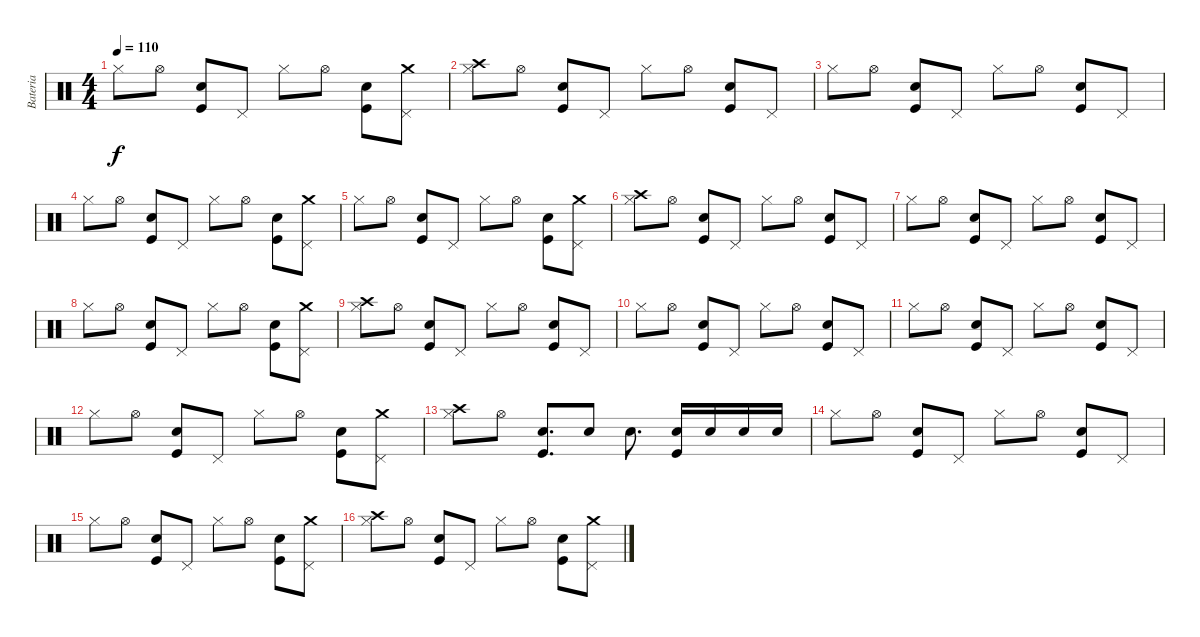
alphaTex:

\track ("Bateria" "Bateria") {instrument percussion}
\staff {score}
\articulation defaults
\ts (4 4)
\tempo 110
\clef neutral
\ks c "Hi-Hat (closed)".8{dy f} "Hi-Hat (open)".8
("Electric Snare (hit)" "Kick (hit)").8 "Pedal Hi-Hat (hit)".8 "Hi-Hat (closed)".8 "Hi-Hat (open)".8 ("Electric Snare (hit)" "Kick (hit)").8 ("Crash medium (hit)" "Pedal Hi-Hat (hit)").8 |
("Crash high (hit)" "Hi-Hat (closed)").8 "Hi-Hat (open)".8 ("Electric Snare (hit)" "Kick (hit)").8 "Pedal Hi-Hat (hit)".8 "Hi-Hat (closed)".8 "Hi-Hat (open)".8 ("Electric Snare (hit)" "Kick (hit)").8 "Pedal Hi-Hat (hit)".8 |
"Hi-Hat (closed)".8 "Hi-Hat (open)".8 ("Electric Snare (hit)" "Kick (hit)").8 "Pedal Hi-Hat (hit)".8 "Hi-Hat (closed)".8 "Hi-Hat (open)".8 ("Electric Snare (hit)" "Kick (hit)").8 "Pedal Hi-Hat (hit)".8 |
"Hi-Hat (closed)".8 "Hi-Hat (open)".8 ("Electric Snare (hit)" "Kick (hit)").8 "Pedal Hi-Hat (hit)".8 "Hi-Hat (closed)".8 "Hi-Hat (open)".8 ("Electric Snare (hit)" "Kick (hit)").8 ("Crash medium (hit)" "Pedal Hi-Hat (hit)").8 |
"Hi-Hat (closed)".8 "Hi-Hat (open)".8 ("Electric Snare (hit)" "Kick (hit)").8 "Pedal Hi-Hat (hit)".8 "Hi-Hat (closed)".8 "Hi-Hat (open)".8 ("Electric Snare (hit)" "Kick (hit)").8 ("Crash medium (hit)" "Pedal Hi-Hat (hit)").8 |
("Crash high (hit)" "Hi-Hat (closed)").8 "Hi-Hat (open)".8 ("Electric Snare (hit)" "Kick (hit)").8 "Pedal Hi-Hat (hit)".8 "Hi-Hat (closed)".8 "Hi-Hat (open)".8 ("Electric Snare (hit)" "Kick (hit)").8 "Pedal Hi-Hat (hit)".8 |
"Hi-Hat (closed)".8 "Hi-Hat (open)".8 ("Electric Snare (hit)" "Kick (hit)").8 "Pedal Hi-Hat (hit)".8 "Hi-Hat (closed)".8 "Hi-Hat (open)".8 ("Electric Snare (hit)" "Kick (hit)").8 "Pedal Hi-Hat (hit)".8 |
"Hi-Hat (closed)".8 "Hi-Hat (open)".8 ("Electric Snare (hit)" "Kick (hit)").8 "Pedal Hi-Hat (hit)".8 "Hi-Hat (closed)".8 "Hi-Hat (open)".8 ("Electric Snare (hit)" "Kick (hit)").8 ("Crash medium (hit)" "Pedal Hi-Hat (hit)").8 |
("Crash high (hit)" "Hi-Hat (closed)").8 "Hi-Hat (open)".8 ("Electric Snare (hit)" "Kick (hit)").8 "Pedal Hi-Hat (hit)".8 "Hi-Hat (closed)".8 "Hi-Hat (open)".8 ("Electric Snare (hit)" "Kick (hit)").8 "Pedal Hi-Hat (hit)".8 |
"Hi-Hat (closed)".8 "Hi-Hat (open)".8 ("Electric Snare (hit)" "Kick (hit)").8 "Pedal Hi-Hat (hit)".8 "Hi-Hat (closed)".8 "Hi-Hat (open)".8 ("Electric Snare (hit)" "Kick (hit)").8 "Pedal Hi-Hat (hit)".8 |
"Hi-Hat (closed)".8 "Hi-Hat (open)".8 ("Electric Snare (hit)" "Kick (hit)").8 "Pedal Hi-Hat (hit)".8 "Hi-Hat (closed)".8 "Hi-Hat (open)".8 ("Electric Snare (hit)" "Kick (hit)").8 "Pedal Hi-Hat (hit)".8 |
"Hi-Hat (closed)".8 "Hi-Hat (open)".8 ("Electric Snare (hit)" "Kick (hit)").8 "Pedal Hi-Hat (hit)".8 "Hi-Hat (closed)".8 "Hi-Hat (open)".8 ("Electric Snare (hit)" "Kick (hit)").8 ("Crash medium (hit)" "Pedal Hi-Hat (hit)").8 |
("Crash high (hit)" "Hi-Hat (closed)").8 "Hi-Hat (open)".8 ("Electric Snare (hit)" "Kick (hit)").8{d} "Electric Snare (hit)".8 "Electric Snare (hit)".8{d} ("Electric Snare (hit)" "Kick (hit)").16 "Electric Snare (hit)".16 "Electric Snare (hit)".16 "Electric Snare (hit)".16 |
"Hi-Hat (closed)".8 "Hi-Hat (open)".8 ("Electric Snare (hit)" "Kick (hit)").8 "Pedal Hi-Hat (hit)".8 "Hi-Hat (closed)".8 "Hi-Hat (open)".8 ("Electric Snare (hit)" "Kick (hit)").8 "Pedal Hi-Hat (hit)".8 |
"Hi-Hat (closed)".8 "Hi-Hat (open)".8 ("Electric Snare (hit)" "Kick (hit)").8 "Pedal Hi-Hat (hit)".8 "Hi-Hat (closed)".8 "Hi-Hat (open)".8 ("Electric Snare (hit)" "Kick (hit)").8 ("Crash medium (hit)" "Pedal Hi-Hat (hit)").8 |
("Crash high (hit)" "Hi-Hat (closed)").8 "Hi-Hat (open)".8 ("Electric Snare (hit)" "Kick (hit)").8 "Pedal Hi-Hat (hit)".8 "Hi-Hat (closed)".8 "Hi-Hat (open)".8 ("Electric Snare (hit)" "Kick (hit)").8 ("Crash medium (hit)" "Pedal Hi-Hat (hit)").8
